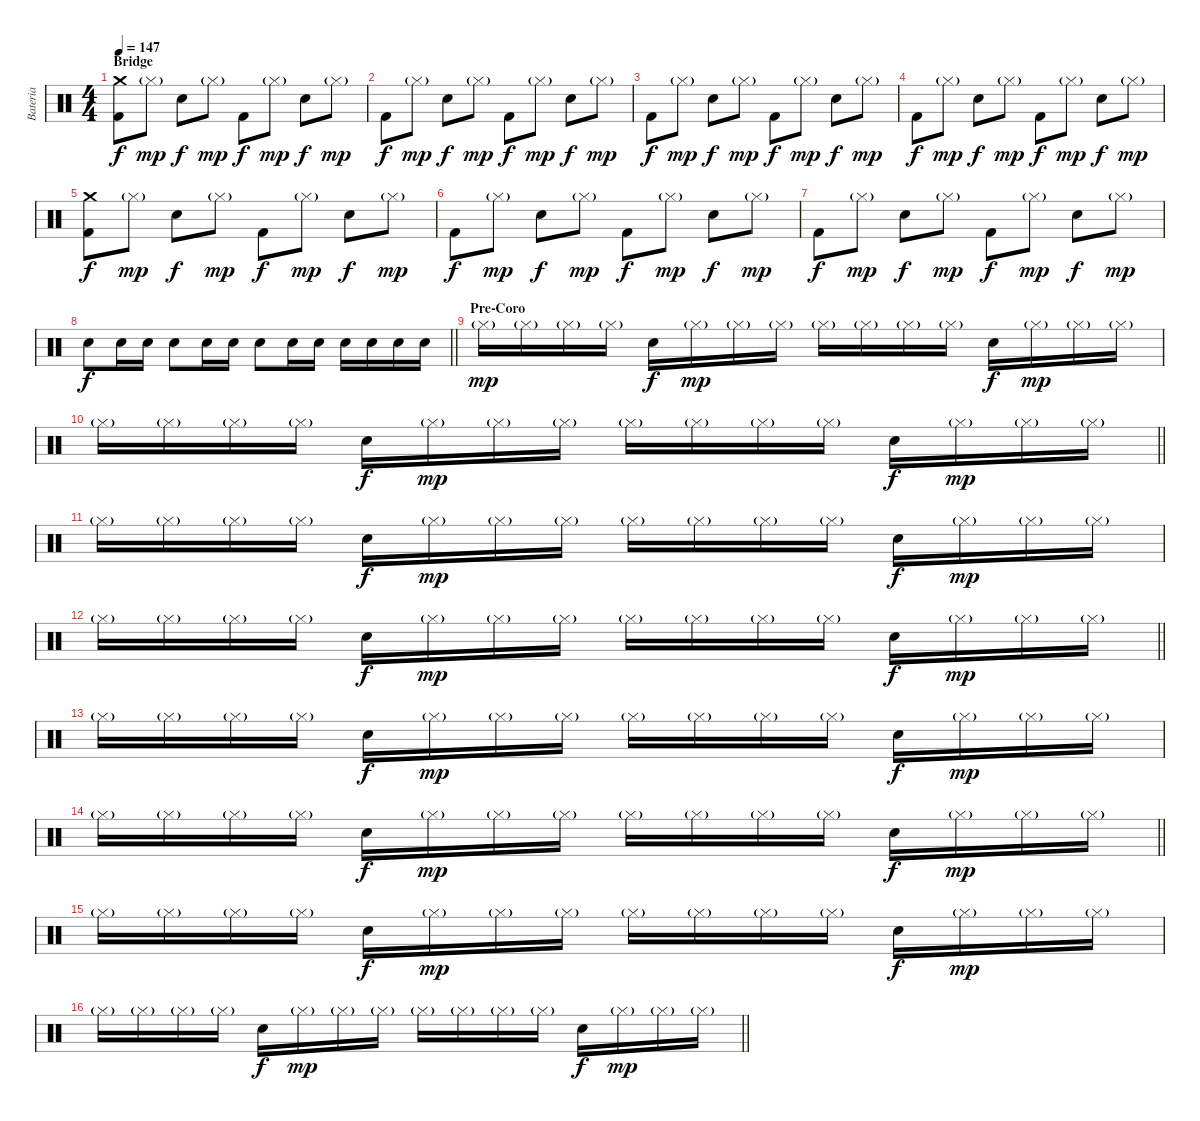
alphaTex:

\track ("Bateria" "Bateria") {instrument percussion}
\staff {score}
\articulation defaults
\ts (4 4)
\section ("" "Bridge")
\tempo 147
\clef neutral
\ks c
("Crash medium (hit)" "Kick (hit) 2").8{dy f} "Hi-Hat (closed)"{g}.8{dy mp} "Electric Snare (hit)".8{dy f} "Hi-Hat (closed)"{g}.8{dy mp} "Kick (hit) 2".8{dy f} "Hi-Hat (closed)"{g}.8{dy mp} "Electric Snare (hit)".8{dy f} "Hi-Hat (closed)"{g}.8{dy mp} |
"Kick (hit) 2".8{dy f} "Hi-Hat (closed)"{g}.8{dy mp} "Electric Snare (hit)".8{dy f} "Hi-Hat (closed)"{g}.8{dy mp} "Kick (hit) 2".8{dy f} "Hi-Hat (closed)"{g}.8{dy mp} "Electric Snare (hit)".8{dy f} "Hi-Hat (closed)"{g}.8{dy mp} |
"Kick (hit) 2".8{dy f} "Hi-Hat (closed)"{g}.8{dy mp} "Electric Snare (hit)".8{dy f} "Hi-Hat (closed)"{g}.8{dy mp} "Kick (hit) 2".8{dy f} "Hi-Hat (closed)"{g}.8{dy mp} "Electric Snare (hit)".8{dy f} "Hi-Hat (closed)"{g}.8{dy mp} |
"Kick (hit) 2".8{dy f} "Hi-Hat (closed)"{g}.8{dy mp} "Electric Snare (hit)".8{dy f} "Hi-Hat (closed)"{g}.8{dy mp} "Kick (hit) 2".8{dy f} "Hi-Hat (closed)"{g}.8{dy mp} "Electric Snare (hit)".8{dy f} "Hi-Hat (closed)"{g}.8{dy mp} |
("Crash medium (hit)" "Kick (hit) 2").8{dy f} "Hi-Hat (closed)"{g}.8{dy mp} "Electric Snare (hit)".8{dy f} "Hi-Hat (closed)"{g}.8{dy mp} "Kick (hit) 2".8{dy f} "Hi-Hat (closed)"{g}.8{dy mp} "Electric Snare (hit)".8{dy f} "Hi-Hat (closed)"{g}.8{dy mp} |
"Kick (hit) 2".8{dy f} "Hi-Hat (closed)"{g}.8{dy mp} "Electric Snare (hit)".8{dy f} "Hi-Hat (closed)"{g}.8{dy mp} "Kick (hit) 2".8{dy f} "Hi-Hat (closed)"{g}.8{dy mp} "Electric Snare (hit)".8{dy f} "Hi-Hat (closed)"{g}.8{dy mp} |
"Kick (hit) 2".8{dy f} "Hi-Hat (closed)"{g}.8{dy mp} "Electric Snare (hit)".8{dy f} "Hi-Hat (closed)"{g}.8{dy mp} "Kick (hit) 2".8{dy f} "Hi-Hat (closed)"{g}.8{dy mp} "Electric Snare (hit)".8{dy f} "Hi-Hat (closed)"{g}.8{dy mp} |
\barLineRight lightlight "Electric Snare (hit)".8{dy f} "Electric Snare (hit)".16 "Electric Snare (hit)".16 "Electric Snare (hit)".8 "Electric Snare (hit)".16 "Electric Snare (hit)".16 "Electric Snare (hit)".8 "Electric Snare (hit)".16 "Electric Snare (hit)".16 "Electric Snare (hit)".16 "Electric Snare (hit)".16 "Electric Snare (hit)".16 "Electric Snare (hit)".16
|
\section ("" "Pre-Coro")
"Hi-Hat (closed)"{g}.16{dy mp} "Hi-Hat (closed)"{g}.16 "Hi-Hat (closed)"{g}.16 "Hi-Hat (closed)"{g}.16 "Electric Snare (hit)".16{dy f} "Hi-Hat (closed)"{g}.16{dy mp} "Hi-Hat (closed)"{g}.16 "Hi-Hat (closed)"{g}.16 "Hi-Hat (closed)"{g}.16 "Hi-Hat (closed)"{g}.16 "Hi-Hat (closed)"{g}.16 "Hi-Hat (closed)"{g}.16 "Electric Snare (hit)".16{dy f} "Hi-Hat (closed)"{g}.16{dy mp} "Hi-Hat (closed)"{g}.16 "Hi-Hat (closed)"{g}.16 |
\barLineRight lightlight "Hi-Hat (closed)"{g}.16 "Hi-Hat (closed)"{g}.16 "Hi-Hat (closed)"{g}.16 "Hi-Hat (closed)"{g}.16 "Electric Snare (hit)".16{dy f} "Hi-Hat (closed)"{g}.16{dy mp} "Hi-Hat (closed)"{g}.16 "Hi-Hat (closed)"{g}.16 "Hi-Hat (closed)"{g}.16 "Hi-Hat (closed)"{g}.16 "Hi-Hat (closed)"{g}.16 "Hi-Hat (closed)"{g}.16 "Electric Snare (hit)".16{dy f} "Hi-Hat (closed)"{g}.16{dy mp} "Hi-Hat (closed)"{g}.16 "Hi-Hat (closed)"{g}.16
|
"Hi-Hat (closed)"{g}.16 "Hi-Hat (closed)"{g}.16 "Hi-Hat (closed)"{g}.16 "Hi-Hat (closed)"{g}.16 "Electric Snare (hit)".16{dy f} "Hi-Hat (closed)"{g}.16{dy mp} "Hi-Hat (closed)"{g}.16 "Hi-Hat (closed)"{g}.16 "Hi-Hat (closed)"{g}.16 "Hi-Hat (closed)"{g}.16 "Hi-Hat (closed)"{g}.16 "Hi-Hat (closed)"{g}.16 "Electric Snare (hit)".16{dy f} "Hi-Hat (closed)"{g}.16{dy mp} "Hi-Hat (closed)"{g}.16 "Hi-Hat (closed)"{g}.16 |
\barLineRight lightlight "Hi-Hat (closed)"{g}.16 "Hi-Hat (closed)"{g}.16 "Hi-Hat (closed)"{g}.16 "Hi-Hat (closed)"{g}.16 "Electric Snare (hit)".16{dy f} "Hi-Hat (closed)"{g}.16{dy mp} "Hi-Hat (closed)"{g}.16 "Hi-Hat (closed)"{g}.16 "Hi-Hat (closed)"{g}.16 "Hi-Hat (closed)"{g}.16 "Hi-Hat (closed)"{g}.16 "Hi-Hat (closed)"{g}.16 "Electric Snare (hit)".16{dy f} "Hi-Hat (closed)"{g}.16{dy mp} "Hi-Hat (closed)"{g}.16 "Hi-Hat (closed)"{g}.16
|
"Hi-Hat (closed)"{g}.16 "Hi-Hat (closed)"{g}.16 "Hi-Hat (closed)"{g}.16 "Hi-Hat (closed)"{g}.16 "Electric Snare (hit)".16{dy f} "Hi-Hat (closed)"{g}.16{dy mp} "Hi-Hat (closed)"{g}.16 "Hi-Hat (closed)"{g}.16 "Hi-Hat (closed)"{g}.16 "Hi-Hat (closed)"{g}.16 "Hi-Hat (closed)"{g}.16 "Hi-Hat (closed)"{g}.16 "Electric Snare (hit)".16{dy f} "Hi-Hat (closed)"{g}.16{dy mp} "Hi-Hat (closed)"{g}.16 "Hi-Hat (closed)"{g}.16 |
\barLineRight lightlight "Hi-Hat (closed)"{g}.16 "Hi-Hat (closed)"{g}.16 "Hi-Hat (closed)"{g}.16 "Hi-Hat (closed)"{g}.16 "Electric Snare (hit)".16{dy f} "Hi-Hat (closed)"{g}.16{dy mp} "Hi-Hat (closed)"{g}.16 "Hi-Hat (closed)"{g}.16 "Hi-Hat (closed)"{g}.16 "Hi-Hat (closed)"{g}.16 "Hi-Hat (closed)"{g}.16 "Hi-Hat (closed)"{g}.16 "Electric Snare (hit)".16{dy f} "Hi-Hat (closed)"{g}.16{dy mp} "Hi-Hat (closed)"{g}.16 "Hi-Hat (closed)"{g}.16
|
"Hi-Hat (closed)"{g}.16 "Hi-Hat (closed)"{g}.16 "Hi-Hat (closed)"{g}.16 "Hi-Hat (closed)"{g}.16 "Electric Snare (hit)".16{dy f} "Hi-Hat (closed)"{g}.16{dy mp} "Hi-Hat (closed)"{g}.16 "Hi-Hat (closed)"{g}.16 "Hi-Hat (closed)"{g}.16 "Hi-Hat (closed)"{g}.16 "Hi-Hat (closed)"{g}.16 "Hi-Hat (closed)"{g}.16 "Electric Snare (hit)".16{dy f} "Hi-Hat (closed)"{g}.16{dy mp} "Hi-Hat (closed)"{g}.16 "Hi-Hat (closed)"{g}.16 |
\barLineRight lightlight "Hi-Hat (closed)"{g}.16 "Hi-Hat (closed)"{g}.16 "Hi-Hat (closed)"{g}.16 "Hi-Hat (closed)"{g}.16 "Electric Snare (hit)".16{dy f} "Hi-Hat (closed)"{g}.16{dy mp} "Hi-Hat (closed)"{g}.16 "Hi-Hat (closed)"{g}.16 "Hi-Hat (closed)"{g}.16 "Hi-Hat (closed)"{g}.16 "Hi-Hat (closed)"{g}.16 "Hi-Hat (closed)"{g}.16 "Electric Snare (hit)".16{dy f} "Hi-Hat (closed)"{g}.16{dy mp} "Hi-Hat (closed)"{g}.16 "Hi-Hat (closed)"{g}.16
